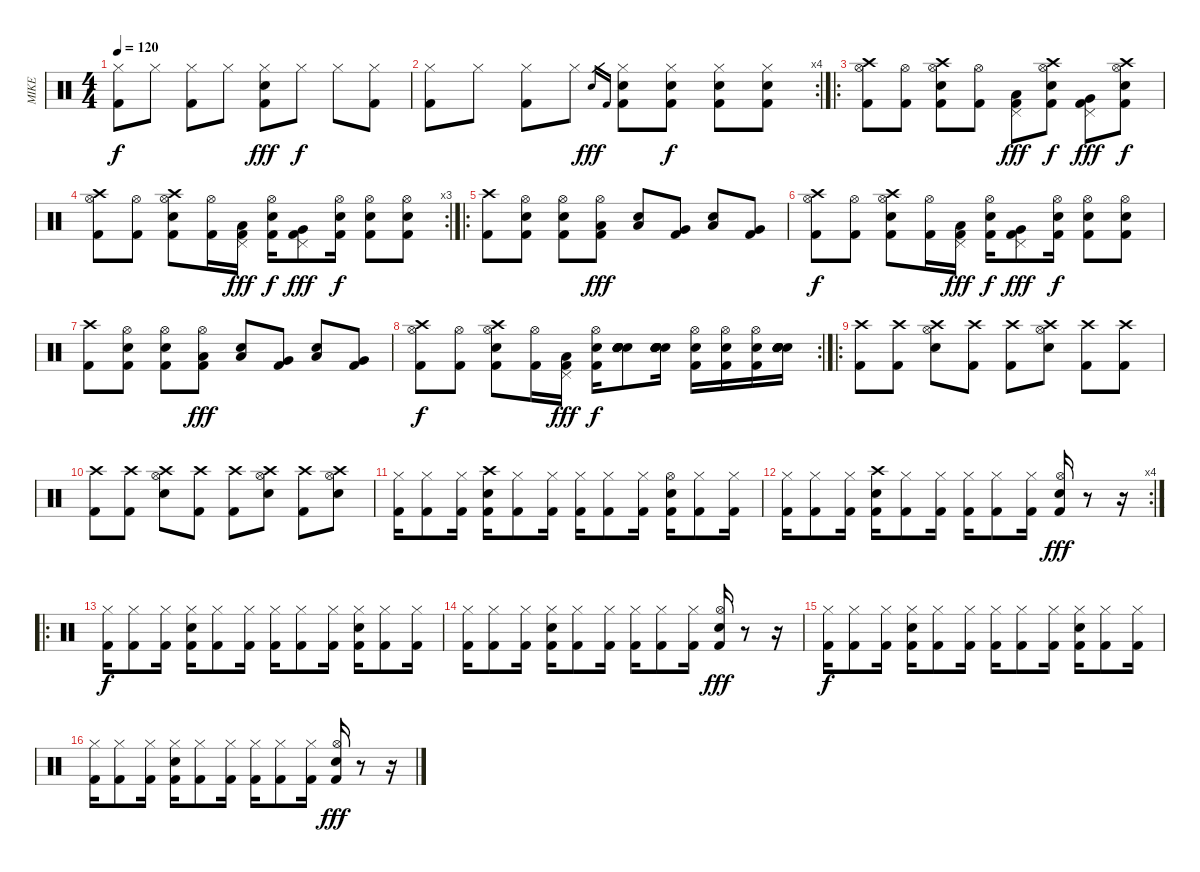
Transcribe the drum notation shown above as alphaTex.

\track ("MIKE" "MIKE") {instrument percussion}
\staff {score}
\articulation defaults
\ts (4 4)
\tempo 120
\clef neutral
\ks c
("Hi-Hat (closed)" "Kick (hit) 2").8{dy f} "Hi-Hat (closed)".8 ("Hi-Hat (closed)" "Kick (hit) 2").8 "Hi-Hat (closed)".8 ("Hi-Hat (closed)" "Electric Snare (hit)" "Kick (hit) 2").8{dy fff} "Hi-Hat (closed)".8{dy f} "Hi-Hat (closed)".8 ("Hi-Hat (closed)" "Kick (hit) 2").8 |
\rc 4
("Hi-Hat (closed)" "Kick (hit) 2").8 "Hi-Hat (closed)".8 ("Hi-Hat (closed)" "Kick (hit) 2").8 "Hi-Hat (closed)".8 "Electric Snare (hit)".16{gr dy fff} "Kick (hit) 2".16{gr} ("Hi-Hat (closed)" "Electric Snare (hit)" "Kick (hit) 2").8 ("Hi-Hat (closed)" "Electric Snare (hit)" "Kick (hit) 2").8{dy f} ("Hi-Hat (closed)" "Electric Snare (hit)" "Kick (hit) 2").8 ("Hi-Hat (closed)" "Electric Snare (hit)" "Kick (hit) 2").8 |
\ro
("Crash high (hit)" "Hi-Hat (open)" "Kick (hit) 2").8 ("Hi-Hat (open)" "Kick (hit) 2").8 ("Crash high (hit)" "Hi-Hat (open)" "Electric Snare (hit)" "Kick (hit) 2").8 ("Hi-Hat (open)" "Kick (hit) 2").8 ("Low Tom (hit)" "Pedal Hi-Hat (hit)" "Kick (hit) 2").8{dy fff} ("Crash high (hit)" "Hi-Hat (open)" "Electric Snare (hit)" "Kick (hit) 2").8{dy f} ("Very Low Tom (hit)" "Pedal Hi-Hat (hit)" "Kick (hit) 2").8{dy fff} ("Crash high (hit)" "Hi-Hat (open)" "Electric Snare (hit)" "Kick (hit) 2").8{dy f} |
\rc 3
("Crash high (hit)" "Hi-Hat (open)" "Kick (hit) 2").8 ("Hi-Hat (open)" "Kick (hit) 2").8 ("Crash high (hit)" "Hi-Hat (open)" "Electric Snare (hit)" "Kick (hit) 2").8 ("Hi-Hat (open)" "Kick (hit) 2").16 ("Low Tom (hit)" "Pedal Hi-Hat (hit)" "Kick (hit) 2").16{dy fff} ("Hi-Hat (open)" "Electric Snare (hit)" "Kick (hit) 2").16{dy f} ("Very Low Tom (hit)" "Pedal Hi-Hat (hit)" "Kick (hit) 2").8{dy fff} ("Hi-Hat (open)" "Electric Snare (hit)" "Kick (hit) 2").16{dy f} ("Hi-Hat (open)" "Electric Snare (hit)" "Kick (hit) 2").8 ("Hi-Hat (open)" "Electric Snare (hit)" "Kick (hit) 2").8 |
\ro
("Crash high (hit)" "Kick (hit) 2").8 ("Hi-Hat (open)" "Electric Snare (hit)" "Kick (hit) 2").8 ("Hi-Hat (open)" "Electric Snare (hit)" "Kick (hit) 2").8 ("Hi-Hat (open)" "Low Tom (hit)" "Kick (hit) 2").8{dy fff} ("Low Tom (hit)" "Electric Snare (hit)").8 ("Very Low Tom (hit)" "Kick (hit) 2").8 ("Low Tom (hit)" "Electric Snare (hit)").8 ("Very Low Tom (hit)" "Kick (hit) 2").8 |
("Crash high (hit)" "Hi-Hat (open)" "Kick (hit) 2").8{dy f} ("Hi-Hat (open)" "Kick (hit) 2").8 ("Crash high (hit)" "Hi-Hat (open)" "Electric Snare (hit)" "Kick (hit) 2").8 ("Hi-Hat (open)" "Kick (hit) 2").16 ("Low Tom (hit)" "Pedal Hi-Hat (hit)" "Kick (hit) 2").16{dy fff} ("Hi-Hat (open)" "Electric Snare (hit)" "Kick (hit) 2").16{dy f} ("Very Low Tom (hit)" "Pedal Hi-Hat (hit)" "Kick (hit) 2").8{dy fff} ("Hi-Hat (open)" "Electric Snare (hit)" "Kick (hit) 2").16{dy f} ("Hi-Hat (open)" "Electric Snare (hit)" "Kick (hit) 2").8 ("Hi-Hat (open)" "Electric Snare (hit)" "Kick (hit) 2").8 |
("Crash high (hit)" "Kick (hit) 2").8 ("Hi-Hat (open)" "Electric Snare (hit)" "Kick (hit) 2").8 ("Hi-Hat (open)" "Electric Snare (hit)" "Kick (hit) 2").8 ("Hi-Hat (open)" "Low Tom (hit)" "Kick (hit) 2").8{dy fff} ("Low Tom (hit)" "Electric Snare (hit)").8 ("Very Low Tom (hit)" "Kick (hit) 2").8 ("Low Tom (hit)" "Electric Snare (hit)").8 ("Very Low Tom (hit)" "Kick (hit) 2").8 |
\rc 2
("Crash high (hit)" "Hi-Hat (open)" "Kick (hit) 2").8{dy f} ("Hi-Hat (open)" "Kick (hit) 2").8 ("Crash high (hit)" "Hi-Hat (open)" "Electric Snare (hit)" "Kick (hit) 2").8 ("Hi-Hat (open)" "Kick (hit) 2").16 ("Low Tom (hit)" "Pedal Hi-Hat (hit)" "Kick (hit) 2").16{dy fff} ("Hi-Hat (open)" "Electric Snare (hit)" "Kick (hit) 2").16{dy f} ("Electric Snare (hit)" "Electric Snare (hit)" "Electric Snare (hit)" "Electric Snare (hit)" "Electric Snare (hit)" "Electric Snare (hit)").8 ("Electric Snare (hit)" "Electric Snare (hit)" "Electric Snare (hit)" "Electric Snare (hit)" "Electric Snare (hit)" "Electric Snare (hit)").16 ("Hi-Hat (open)" "Electric Snare (hit)" "Kick (hit) 2").16 ("Hi-Hat (open)" "Electric Snare (hit)" "Kick (hit) 2").16 ("Hi-Hat (open)" "Electric Snare (hit)" "Kick (hit) 2").16 ("Electric Snare (hit)" "Electric Snare (hit)" "Electric Snare (hit)" "Electric Snare (hit)" "Electric Snare (hit)" "Electric Snare (hit)").16 |
\ro
("Crash high (hit)" "Kick (hit) 2").8 ("Crash high (hit)" "Kick (hit) 2").8 ("Hi-Hat (open)" "Crash high (hit)" "Electric Snare (hit)").8 ("Crash high (hit)" "Kick (hit) 2").8 ("Crash high (hit)" "Kick (hit) 2").8 ("Hi-Hat (open)" "Crash high (hit)" "Electric Snare (hit)").8 ("Crash high (hit)" "Kick (hit) 2").8 ("Crash high (hit)" "Kick (hit) 2").8 |
("Crash high (hit)" "Kick (hit) 2").8 ("Crash high (hit)" "Kick (hit) 2").8 ("Hi-Hat (open)" "Crash high (hit)" "Electric Snare (hit)").8 ("Crash high (hit)" "Kick (hit) 2").8 ("Crash high (hit)" "Kick (hit) 2").8 ("Hi-Hat (open)" "Crash high (hit)" "Electric Snare (hit)").8 ("Crash high (hit)" "Kick (hit) 2").8 ("Hi-Hat (open)" "Crash high (hit)" "Electric Snare (hit)").8 |
("Hi-Hat (closed)" "Kick (hit) 2").16 ("Hi-Hat (closed)" "Kick (hit) 2").8 ("Hi-Hat (closed)" "Kick (hit) 2").16 ("Crash high (hit)" "Snare (hit) 2" "Kick (hit) 2").16 ("Hi-Hat (closed)" "Kick (hit) 2").8 ("Hi-Hat (closed)" "Kick (hit) 2").16 ("Hi-Hat (closed)" "Kick (hit) 2").16 ("Hi-Hat (closed)" "Kick (hit) 2").8 ("Hi-Hat (closed)" "Kick (hit) 2").16 ("Hi-Hat (open)" "Snare (hit) 2" "Kick (hit) 2").16 ("Hi-Hat (closed)" "Kick (hit) 2").8 ("Hi-Hat (closed)" "Kick (hit) 2").16 |
\rc 4
("Hi-Hat (closed)" "Kick (hit) 2").16 ("Hi-Hat (closed)" "Kick (hit) 2").8 ("Hi-Hat (closed)" "Kick (hit) 2").16 ("Crash high (hit)" "Snare (hit) 2" "Kick (hit) 2").16 ("Hi-Hat (closed)" "Kick (hit) 2").8 ("Hi-Hat (closed)" "Kick (hit) 2").16 ("Hi-Hat (closed)" "Kick (hit) 2").16 ("Hi-Hat (closed)" "Kick (hit) 2").8 ("Hi-Hat (closed)" "Kick (hit) 2").16 ("Hi-Hat (open)" "Snare (hit) 2" "Kick (hit) 2").16{dy fff} r.8 r.16 |
\ro
("Hi-Hat (closed)" "Kick (hit) 2").16{dy f} ("Hi-Hat (closed)" "Kick (hit) 2").8 ("Hi-Hat (closed)" "Kick (hit) 2").16 ("Hi-Hat (closed)" "Snare (hit) 2" "Kick (hit) 2").16 ("Hi-Hat (closed)" "Kick (hit) 2").8 ("Hi-Hat (closed)" "Kick (hit) 2").16 ("Hi-Hat (closed)" "Kick (hit) 2").16 ("Hi-Hat (closed)" "Kick (hit) 2").8 ("Hi-Hat (closed)" "Kick (hit) 2").16 ("Hi-Hat (closed)" "Snare (hit) 2" "Kick (hit) 2").16 ("Hi-Hat (closed)" "Kick (hit) 2").8 ("Hi-Hat (closed)" "Kick (hit) 2").16 |
("Hi-Hat (closed)" "Kick (hit) 2").16 ("Hi-Hat (closed)" "Kick (hit) 2").8 ("Hi-Hat (closed)" "Kick (hit) 2").16 ("Hi-Hat (closed)" "Snare (hit) 2" "Kick (hit) 2").16 ("Hi-Hat (closed)" "Kick (hit) 2").8 ("Hi-Hat (closed)" "Kick (hit) 2").16 ("Hi-Hat (closed)" "Kick (hit) 2").16 ("Hi-Hat (closed)" "Kick (hit) 2").8 ("Hi-Hat (closed)" "Kick (hit) 2").16 ("Hi-Hat (open)" "Snare (hit) 2" "Kick (hit) 2").16{dy fff} r.8 r.16 |
("Hi-Hat (closed)" "Kick (hit) 2").16{dy f} ("Hi-Hat (closed)" "Kick (hit) 2").8 ("Hi-Hat (closed)" "Kick (hit) 2").16 ("Hi-Hat (closed)" "Snare (hit) 2" "Kick (hit) 2").16 ("Hi-Hat (closed)" "Kick (hit) 2").8 ("Hi-Hat (closed)" "Kick (hit) 2").16 ("Hi-Hat (closed)" "Kick (hit) 2").16 ("Hi-Hat (closed)" "Kick (hit) 2").8 ("Hi-Hat (closed)" "Kick (hit) 2").16 ("Hi-Hat (closed)" "Snare (hit) 2" "Kick (hit) 2").16 ("Hi-Hat (closed)" "Kick (hit) 2").8 ("Hi-Hat (closed)" "Kick (hit) 2").16 |
("Hi-Hat (closed)" "Kick (hit) 2").16 ("Hi-Hat (closed)" "Kick (hit) 2").8 ("Hi-Hat (closed)" "Kick (hit) 2").16 ("Hi-Hat (closed)" "Snare (hit) 2" "Kick (hit) 2").16 ("Hi-Hat (closed)" "Kick (hit) 2").8 ("Hi-Hat (closed)" "Kick (hit) 2").16 ("Hi-Hat (closed)" "Kick (hit) 2").16 ("Hi-Hat (closed)" "Kick (hit) 2").8 ("Hi-Hat (closed)" "Kick (hit) 2").16 ("Hi-Hat (open)" "Snare (hit) 2" "Kick (hit) 2").16{dy fff} r.8 r.16
